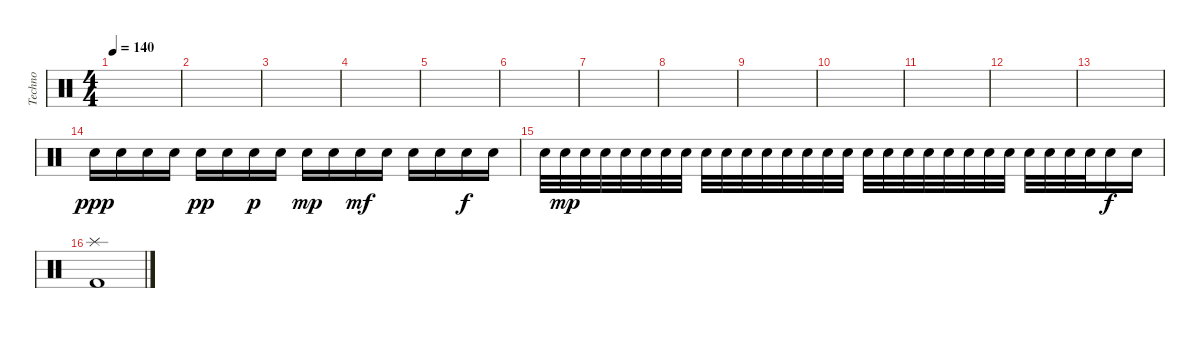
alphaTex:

\track ("Techno" "Techno") {instrument percussion}
\staff {score}
\articulation defaults
\ts (4 4)
\tempo 140
\clef neutral
\ks c
|
|
|
|
|
|
|
|
|
|
|
|
|
"Electric Snare (hit)".16{dy ppp} "Electric Snare (hit)".16 "Electric Snare (hit)".16 "Electric Snare (hit)".16 "Electric Snare (hit)".16{dy pp} "Electric Snare (hit)".16 "Electric Snare (hit)".16{dy p} "Electric Snare (hit)".16 "Electric Snare (hit)".16{dy mp} "Electric Snare (hit)".16 "Electric Snare (hit)".16{dy mf} "Electric Snare (hit)".16 "Electric Snare (hit)".16 "Electric Snare (hit)".16 "Electric Snare (hit)".16{dy f} "Electric Snare (hit)".16 |
"Electric Snare (hit)".32 "Electric Snare (hit)".32{dy mp} "Electric Snare (hit)".32 "Electric Snare (hit)".32 "Electric Snare (hit)".32 "Electric Snare (hit)".32 "Electric Snare (hit)".32 "Electric Snare (hit)".32 "Electric Snare (hit)".32 "Electric Snare (hit)".32 "Electric Snare (hit)".32 "Electric Snare (hit)".32 "Electric Snare (hit)".32 "Electric Snare (hit)".32 "Electric Snare (hit)".32 "Electric Snare (hit)".32 "Electric Snare (hit)".32 "Electric Snare (hit)".32 "Electric Snare (hit)".32 "Electric Snare (hit)".32 "Electric Snare (hit)".32 "Electric Snare (hit)".32 "Electric Snare (hit)".32 "Electric Snare (hit)".32 "Electric Snare (hit)".32 "Electric Snare (hit)".32 "Electric Snare (hit)".32 "Electric Snare (hit)".32 "Electric Snare (hit)".16{dy f} "Electric Snare (hit)".16 |
("Splash (hit)" "Kick (hit) 2").1
